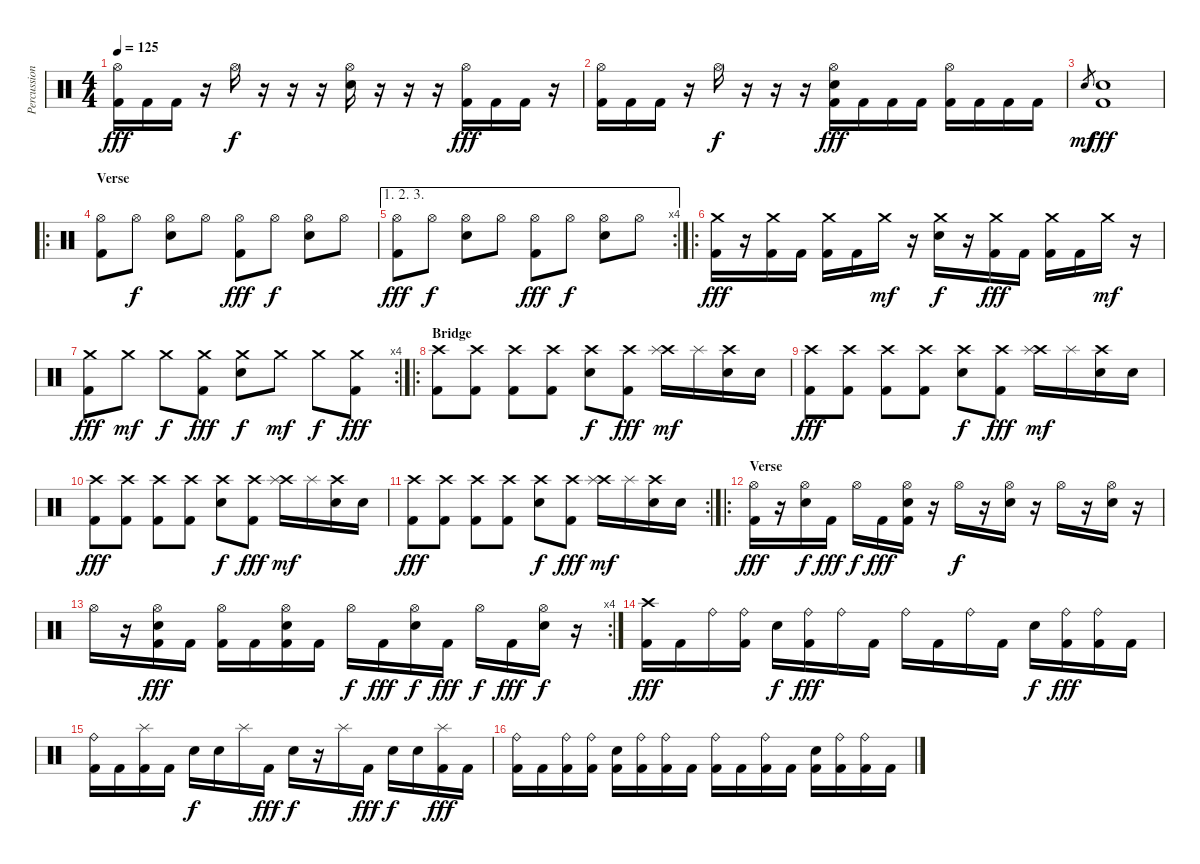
\track ("Percussion" "Percussion") {instrument percussion}
\staff {score}
\articulation defaults
\ts (4 4)
\tempo 125
\clef neutral
\ks c
("Hi-Hat (open)" "Kick (hit) 2").16{dy fff} "Kick (hit) 2".16 "Kick (hit) 2".16 r.16 "Hi-Hat (open)".16{dy f} r.16 r.16 r.16 ("Hi-Hat (open)" "Electric Snare (hit)").16 r.16 r.16 r.16 ("Hi-Hat (open)" "Kick (hit) 2").16{dy fff} "Kick (hit) 2".16 "Kick (hit) 2".16 r.16 |
("Hi-Hat (open)" "Kick (hit) 2").16 "Kick (hit) 2".16 "Kick (hit) 2".16 r.16 "Hi-Hat (open)".16{dy f} r.16 r.16 r.16 ("Hi-Hat (open)" "Electric Snare (hit)" "Kick (hit) 2").16{dy fff} "Kick (hit) 2".16 "Kick (hit) 2".16 "Kick (hit) 2".16 ("Hi-Hat (open)" "Kick (hit) 2").16 "Kick (hit) 2".16 "Kick (hit) 2".16 "Kick (hit) 2".16 |
"Electric Snare (hit)".8{gr dy mf} ("Electric Snare (hit)" "Kick (hit) 2").1{dy fff} |
\ro
\section ("" "Verse")
("Hi-Hat (open)" "Kick (hit) 2").8 "Hi-Hat (open)".8{dy f} ("Hi-Hat (open)" "Electric Snare (hit)").8 "Hi-Hat (open)".8 ("Hi-Hat (open)" "Kick (hit) 2").8{dy fff} "Hi-Hat (open)".8{dy f} ("Hi-Hat (open)" "Electric Snare (hit)").8 "Hi-Hat (open)".8 |
\ae (1 2 3)
\rc 4
("Hi-Hat (open)" "Kick (hit) 2").8{dy fff} "Hi-Hat (open)".8{dy f} ("Hi-Hat (open)" "Electric Snare (hit)").8 "Hi-Hat (open)".8 ("Hi-Hat (open)" "Kick (hit) 2").8{dy fff} "Hi-Hat (open)".8{dy f} ("Hi-Hat (open)" "Electric Snare (hit)").8 "Hi-Hat (open)".8 |
\ro
("Crash medium (hit)" "Kick (hit) 2").16{dy fff} r.16 ("Crash medium (hit)" "Kick (hit) 2").16 "Kick (hit) 2".16 ("Crash medium (hit)" "Kick (hit) 2").16 "Kick (hit) 2".16 "Crash medium (hit)".16{dy mf} r.16 ("Crash medium (hit)" "Electric Snare (hit)").16{dy f} r.16 ("Crash medium (hit)" "Kick (hit) 2").16{dy fff} "Kick (hit) 2".16 ("Crash medium (hit)" "Kick (hit) 2").16 "Kick (hit) 2".16 "Crash medium (hit)".16{dy mf} r.16 |
\rc 4
("Crash medium (hit)" "Kick (hit) 2").8{dy fff} "Crash medium (hit)".8{dy mf} "Crash medium (hit)".8{dy f} ("Crash medium (hit)" "Kick (hit) 2").8{dy fff} ("Crash medium (hit)" "Electric Snare (hit)").8{dy f} "Crash medium (hit)".8{dy mf} "Crash medium (hit)".8{dy f} ("Crash medium (hit)" "Kick (hit) 2").8{dy fff} |
\ro
\section ("" "Bridge")
("Crash high (hit)" "Kick (hit) 2").8 ("Crash high (hit)" "Kick (hit) 2").8 ("Crash high (hit)" "Kick (hit) 2").8 ("Crash high (hit)" "Kick (hit) 2").8 ("Crash high (hit)" "Electric Snare (hit)").8{dy f} ("Crash high (hit)" "Kick (hit) 2").8{dy fff} ("Crash high (hit)" "Splash (hit)").16{dy mf} "Splash (hit)".16 ("Crash high (hit)" "Electric Snare (hit)").16 "Electric Snare (hit)".16 |
("Crash high (hit)" "Kick (hit) 2").8{dy fff} ("Crash high (hit)" "Kick (hit) 2").8 ("Crash high (hit)" "Kick (hit) 2").8 ("Crash high (hit)" "Kick (hit) 2").8 ("Crash high (hit)" "Electric Snare (hit)").8{dy f} ("Crash high (hit)" "Kick (hit) 2").8{dy fff} ("Crash high (hit)" "Splash (hit)").16{dy mf} "Splash (hit)".16 ("Crash high (hit)" "Electric Snare (hit)").16 "Electric Snare (hit)".16 |
("Crash high (hit)" "Kick (hit) 2").8{dy fff} ("Crash high (hit)" "Kick (hit) 2").8 ("Crash high (hit)" "Kick (hit) 2").8 ("Crash high (hit)" "Kick (hit) 2").8 ("Crash high (hit)" "Electric Snare (hit)").8{dy f} ("Crash high (hit)" "Kick (hit) 2").8{dy fff} ("Crash high (hit)" "Splash (hit)").16{dy mf} "Splash (hit)".16 ("Crash high (hit)" "Electric Snare (hit)").16 "Electric Snare (hit)".16 |
\rc 2
("Crash high (hit)" "Kick (hit) 2").8{dy fff} ("Crash high (hit)" "Kick (hit) 2").8 ("Crash high (hit)" "Kick (hit) 2").8 ("Crash high (hit)" "Kick (hit) 2").8 ("Crash high (hit)" "Electric Snare (hit)").8{dy f} ("Crash high (hit)" "Kick (hit) 2").8{dy fff} ("Crash high (hit)" "Splash (hit)").16{dy mf} "Splash (hit)".16 ("Crash high (hit)" "Electric Snare (hit)").16 "Electric Snare (hit)".16 |
\ro
\section ("" "Verse")
("Hi-Hat (open)" "Kick (hit) 2").16{dy fff} r.16 ("Hi-Hat (open)" "Electric Snare (hit)").16{dy f} "Kick (hit) 2".16{dy fff} "Hi-Hat (open)".16{dy f} "Kick (hit) 2".16{dy fff} ("Hi-Hat (open)" "Electric Snare (hit)" "Kick (hit) 2").16 r.16 "Hi-Hat (open)".16{dy f} r.16 ("Hi-Hat (open)" "Electric Snare (hit)").16 r.16 "Hi-Hat (open)".16 r.16 ("Hi-Hat (open)" "Electric Snare (hit)").16 r.16 |
\rc 4 "Hi-Hat (open)".16
r.16 ("Hi-Hat (open)" "Electric Snare (hit)" "Kick (hit) 2").16{dy fff} "Kick (hit) 2".16 ("Hi-Hat (open)" "Kick (hit) 2").16 "Kick (hit) 2".16 ("Hi-Hat (open)" "Electric Snare (hit)" "Kick (hit) 2").16 "Kick (hit) 2".16 "Hi-Hat (open)".16{dy f} "Kick (hit) 2".16{dy fff} ("Hi-Hat (open)" "Electric Snare (hit)").16{dy f} "Kick (hit) 2".16{dy fff} "Hi-Hat (open)".16{dy f} "Kick (hit) 2".16{dy fff} ("Hi-Hat (open)" "Electric Snare (hit)").16{dy f} r.16 |
("Crash high (hit)" "Kick (hit) 2").16{dy fff} "Kick (hit) 2".16 "Ride (bell)".16 ("Ride (bell)" "Kick (hit) 2").16 "Electric Snare (hit)".16{dy f} ("Ride (bell)" "Kick (hit) 2").16{dy fff} "Ride (bell)".16 "Kick (hit) 2".16 "Ride (bell)".16 "Kick (hit) 2".16 "Ride (bell)".16 "Kick (hit) 2".16 "Electric Snare (hit)".16{dy f} ("Ride (bell)" "Kick (hit) 2").16{dy fff} ("Ride (bell)" "Kick (hit) 2").16 "Kick (hit) 2".16 |
("Ride (bell)" "Kick (hit) 2").16 "Kick (hit) 2".16 ("Splash (hit)" "Kick (hit) 2").16 "Kick (hit) 2".16 "Electric Snare (hit)".16{dy f} "Electric Snare (hit)".16 "Splash (hit)".16 "Kick (hit) 2".16{dy fff} "Electric Snare (hit)".16{dy f} r.16 "Splash (hit)".16 "Kick (hit) 2".16{dy fff} "Electric Snare (hit)".16{dy f} "Electric Snare (hit)".16 ("Splash (hit)" "Kick (hit) 2").16{dy fff} "Kick (hit) 2".16 |
("Ride (bell)" "Kick (hit) 2").16 "Kick (hit) 2".16 ("Ride (bell)" "Kick (hit) 2").16 ("Ride (bell)" "Kick (hit) 2").16 ("Electric Snare (hit)" "Kick (hit) 2").16 ("Ride (bell)" "Kick (hit) 2").16 ("Ride (bell)" "Kick (hit) 2").16 "Kick (hit) 2".16 ("Ride (bell)" "Kick (hit) 2").16 "Kick (hit) 2".16 ("Ride (bell)" "Kick (hit) 2").16 "Kick (hit) 2".16 ("Electric Snare (hit)" "Kick (hit) 2").16 ("Ride (bell)" "Kick (hit) 2").16 ("Ride (bell)" "Kick (hit) 2").16 "Kick (hit) 2".16
